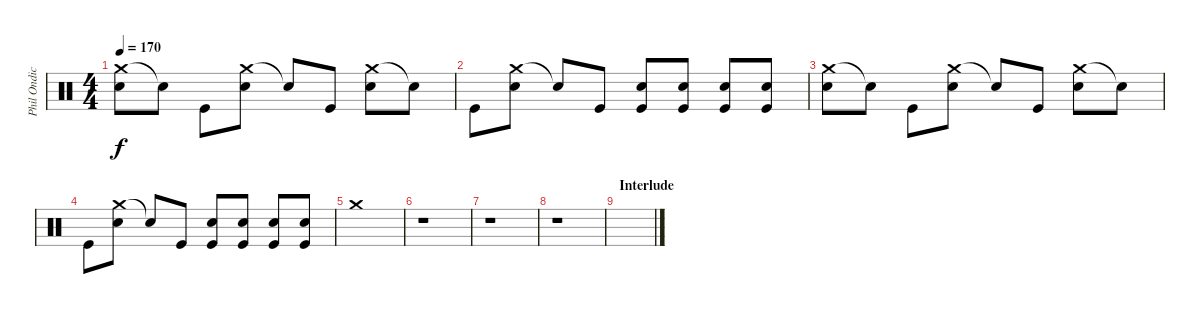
\track ("Phil Ondich (Drums)" "Phil Ondic") {instrument percussion}
\staff {score}
\articulation defaults
\ts (4 4)
\tempo 170
\clef neutral
\ks c
("Crash medium (hit)" "Electric Snare (hit)").8{dy f} "Snare (hit)"{t}.8 "Kick (hit)".8 ("Crash medium (hit)" "Electric Snare (hit)").8 "Snare (hit)"{t}.8 "Kick (hit)".8 ("Crash medium (hit)" "Electric Snare (hit)").8 "Snare (hit)"{t}.8 |
"Kick (hit)".8 ("Crash medium (hit)" "Electric Snare (hit)").8 "Snare (hit)"{t}.8 "Kick (hit)".8 ("Electric Snare (hit)" "Kick (hit)").8 ("Electric Snare (hit)" "Kick (hit)").8 ("Electric Snare (hit)" "Kick (hit)").8 ("Electric Snare (hit)" "Kick (hit)").8 |
("Crash medium (hit)" "Electric Snare (hit)").8 "Snare (hit)"{t}.8 "Kick (hit)".8 ("Crash medium (hit)" "Electric Snare (hit)").8 "Snare (hit)"{t}.8 "Kick (hit)".8 ("Crash medium (hit)" "Electric Snare (hit)").8 "Snare (hit)"{t}.8 |
"Kick (hit)".8 ("Crash medium (hit)" "Electric Snare (hit)").8 "Snare (hit)"{t}.8 "Kick (hit)".8 ("Electric Snare (hit)" "Kick (hit)").8 ("Electric Snare (hit)" "Kick (hit)").8 ("Electric Snare (hit)" "Kick (hit)").8 ("Electric Snare (hit)" "Kick (hit)").8 |
"Crash medium (hit)".1 |
r.1 |
r.1 |
r.1 |
\section ("" "Interlude")
